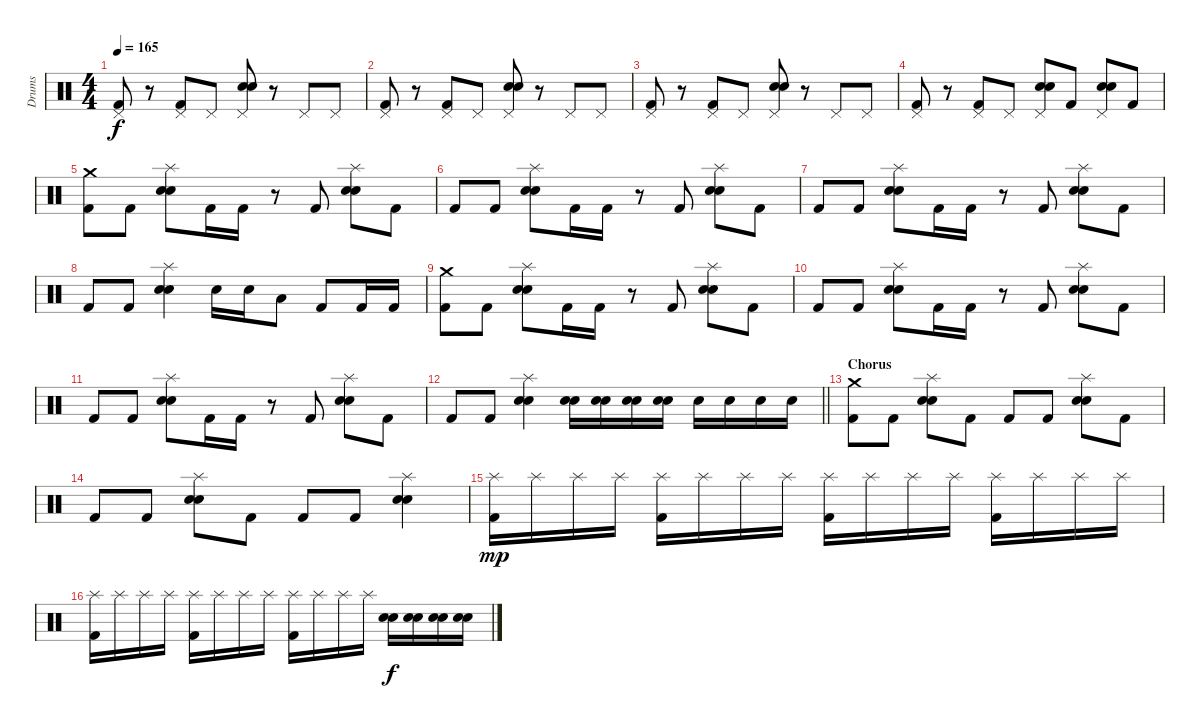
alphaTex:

\track ("Drums" "Drums") {instrument percussion}
\staff {score}
\articulation defaults
\ts (4 4)
\tempo 165
\clef neutral
\ks c
("Pedal Hi-Hat (hit)" "Kick (hit) 2").8{dy f} r.8 ("Pedal Hi-Hat (hit)" "Kick (hit) 2").8 "Pedal Hi-Hat (hit)".8 ("Pedal Hi-Hat (hit)" "Electric Snare (hit)" "Snare (hit) 2").8 r.8 "Pedal Hi-Hat (hit)".8 "Pedal Hi-Hat (hit)".8 |
("Pedal Hi-Hat (hit)" "Kick (hit) 2").8 r.8 ("Pedal Hi-Hat (hit)" "Kick (hit) 2").8 "Pedal Hi-Hat (hit)".8 ("Pedal Hi-Hat (hit)" "Electric Snare (hit)" "Snare (hit) 2").8 r.8 "Pedal Hi-Hat (hit)".8 "Pedal Hi-Hat (hit)".8 |
("Pedal Hi-Hat (hit)" "Kick (hit) 2").8 r.8 ("Pedal Hi-Hat (hit)" "Kick (hit) 2").8 "Pedal Hi-Hat (hit)".8 ("Pedal Hi-Hat (hit)" "Electric Snare (hit)" "Snare (hit) 2").8 r.8 "Pedal Hi-Hat (hit)".8 "Pedal Hi-Hat (hit)".8 |
("Pedal Hi-Hat (hit)" "Kick (hit) 2").8 r.8 ("Pedal Hi-Hat (hit)" "Kick (hit) 2").8 "Pedal Hi-Hat (hit)".8 ("Pedal Hi-Hat (hit)" "Electric Snare (hit)" "Snare (hit) 2").8 "Kick (hit) 2".8 ("Pedal Hi-Hat (hit)" "Electric Snare (hit)" "Snare (hit) 2").8 "Kick (hit) 2".8 |
("Crash medium (hit)" "Kick (hit) 2").8 "Kick (hit) 2".8 ("Splash (hit)" "Electric Snare (hit)" "Snare (hit) 2").8 "Kick (hit) 2".16 "Kick (hit) 2".16 r.8 "Kick (hit) 2".8 ("Splash (hit)" "Electric Snare (hit)" "Snare (hit) 2").8 "Kick (hit) 2".8 |
"Kick (hit) 2".8 "Kick (hit) 2".8 ("Splash (hit)" "Electric Snare (hit)" "Snare (hit) 2").8 "Kick (hit) 2".16 "Kick (hit) 2".16 r.8 "Kick (hit) 2".8 ("Splash (hit)" "Electric Snare (hit)" "Snare (hit) 2").8 "Kick (hit) 2".8 |
"Kick (hit) 2".8 "Kick (hit) 2".8 ("Splash (hit)" "Electric Snare (hit)" "Snare (hit) 2").8 "Kick (hit) 2".16 "Kick (hit) 2".16 r.8 "Kick (hit) 2".8 ("Splash (hit)" "Electric Snare (hit)" "Snare (hit) 2").8 "Kick (hit) 2".8 |
"Kick (hit) 2".8 "Kick (hit) 2".8 ("Splash (hit)" "Electric Snare (hit)" "Snare (hit) 2").4 "Electric Snare (hit)".16 "Electric Snare (hit)".16 "Low Tom (hit)".8 "Kick (hit) 2".8 "Kick (hit) 2".16 "Kick (hit) 2".16 |
("Crash medium (hit)" "Kick (hit) 2").8 "Kick (hit) 2".8 ("Splash (hit)" "Electric Snare (hit)" "Snare (hit) 2").8 "Kick (hit) 2".16 "Kick (hit) 2".16 r.8 "Kick (hit) 2".8 ("Splash (hit)" "Electric Snare (hit)" "Snare (hit) 2").8 "Kick (hit) 2".8 |
"Kick (hit) 2".8 "Kick (hit) 2".8 ("Splash (hit)" "Electric Snare (hit)" "Snare (hit) 2").8 "Kick (hit) 2".16 "Kick (hit) 2".16 r.8 "Kick (hit) 2".8 ("Splash (hit)" "Electric Snare (hit)" "Snare (hit) 2").8 "Kick (hit) 2".8 |
"Kick (hit) 2".8 "Kick (hit) 2".8 ("Splash (hit)" "Electric Snare (hit)" "Snare (hit) 2").8 "Kick (hit) 2".16 "Kick (hit) 2".16 r.8 "Kick (hit) 2".8 ("Splash (hit)" "Electric Snare (hit)" "Snare (hit) 2").8 "Kick (hit) 2".8 |
\barLineRight lightlight "Kick (hit) 2".8 "Kick (hit) 2".8
("Splash (hit)" "Electric Snare (hit)" "Snare (hit) 2").4 ("Electric Snare (hit)" "Snare (hit) 2").16 ("Electric Snare (hit)" "Snare (hit) 2").16 ("Electric Snare (hit)" "Snare (hit) 2").16 ("Electric Snare (hit)" "Snare (hit) 2").16 "Electric Snare (hit)".16 "Electric Snare (hit)".16 "Electric Snare (hit)".16 "Electric Snare (hit)".16 |
\section ("" "Chorus")
("Crash medium (hit)" "Kick (hit) 2").8 "Kick (hit) 2".8 ("Splash (hit)" "Electric Snare (hit)" "Snare (hit) 2").8 "Kick (hit) 2".8 "Kick (hit) 2".8 "Kick (hit) 2".8 ("Splash (hit)" "Electric Snare (hit)" "Snare (hit) 2").8 "Kick (hit) 2".8 |
"Kick (hit) 2".8 "Kick (hit) 2".8 ("Splash (hit)" "Electric Snare (hit)" "Snare (hit) 2").8 "Kick (hit) 2".8 "Kick (hit) 2".8 "Kick (hit) 2".8 ("Splash (hit)" "Electric Snare (hit)" "Snare (hit) 2").4 |
("Splash (hit)" "Kick (hit) 2").16{dy mp} "Splash (hit)".16 "Splash (hit)".16 "Splash (hit)".16 ("Splash (hit)" "Kick (hit) 2").16 "Splash (hit)".16 "Splash (hit)".16 "Splash (hit)".16 ("Splash (hit)" "Kick (hit) 2").16 "Splash (hit)".16 "Splash (hit)".16 "Splash (hit)".16 ("Splash (hit)" "Kick (hit) 2").16 "Splash (hit)".16 "Splash (hit)".16 "Splash (hit)".16 |
("Splash (hit)" "Kick (hit) 2").16 "Splash (hit)".16 "Splash (hit)".16 "Splash (hit)".16 ("Splash (hit)" "Kick (hit) 2").16 "Splash (hit)".16 "Splash (hit)".16 "Splash (hit)".16 ("Splash (hit)" "Kick (hit) 2").16 "Splash (hit)".16 "Splash (hit)".16 "Splash (hit)".16 ("Electric Snare (hit)" "Snare (hit) 2").16{dy f} ("Electric Snare (hit)" "Snare (hit) 2").16 ("Electric Snare (hit)" "Snare (hit) 2").16 ("Electric Snare (hit)" "Snare (hit) 2").16
